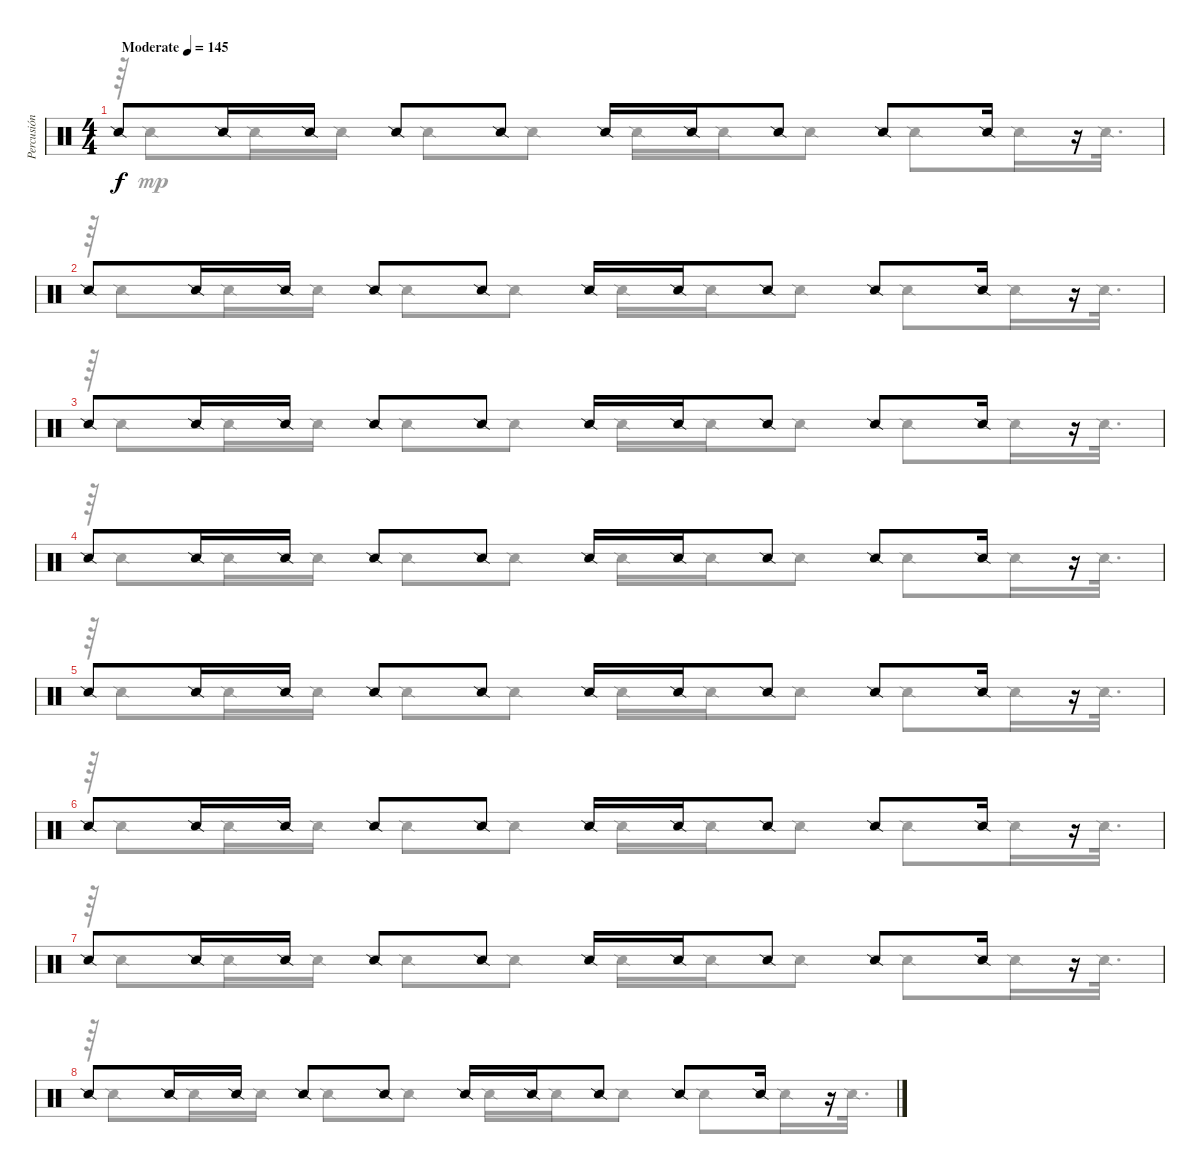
\track ("Percusión" "Percusión") {instrument percussion}
\staff {score}
\articulation defaults
\voice
\ts (4 4)
\tempo (145 "Moderate")
\clef neutral
\ks c "Snare (side stick) 2".8{dy f} "Snare (side stick) 2".16 "Snare (side stick) 2".16 "Snare (side stick) 2".8 "Snare (side stick) 2".8 "Snare (side stick) 2".16 "Snare (side stick) 2".16 "Snare (side stick) 2".8 "Snare (side stick) 2".8 "Snare (side stick) 2".16
r.16 |
"Snare (side stick) 2".8 "Snare (side stick) 2".16 "Snare (side stick) 2".16 "Snare (side stick) 2".8 "Snare (side stick) 2".8 "Snare (side stick) 2".16 "Snare (side stick) 2".16 "Snare (side stick) 2".8 "Snare (side stick) 2".8 "Snare (side stick) 2".16 r.16 |
"Snare (side stick) 2".8 "Snare (side stick) 2".16 "Snare (side stick) 2".16 "Snare (side stick) 2".8 "Snare (side stick) 2".8 "Snare (side stick) 2".16 "Snare (side stick) 2".16 "Snare (side stick) 2".8 "Snare (side stick) 2".8 "Snare (side stick) 2".16 r.16 |
"Snare (side stick) 2".8 "Snare (side stick) 2".16 "Snare (side stick) 2".16 "Snare (side stick) 2".8 "Snare (side stick) 2".8 "Snare (side stick) 2".16 "Snare (side stick) 2".16 "Snare (side stick) 2".8 "Snare (side stick) 2".8 "Snare (side stick) 2".16 r.16 |
"Snare (side stick) 2".8 "Snare (side stick) 2".16 "Snare (side stick) 2".16 "Snare (side stick) 2".8 "Snare (side stick) 2".8 "Snare (side stick) 2".16 "Snare (side stick) 2".16 "Snare (side stick) 2".8 "Snare (side stick) 2".8 "Snare (side stick) 2".16 r.16 |
"Snare (side stick) 2".8 "Snare (side stick) 2".16 "Snare (side stick) 2".16 "Snare (side stick) 2".8 "Snare (side stick) 2".8 "Snare (side stick) 2".16 "Snare (side stick) 2".16 "Snare (side stick) 2".8 "Snare (side stick) 2".8 "Snare (side stick) 2".16 r.16 |
"Snare (side stick) 2".8 "Snare (side stick) 2".16 "Snare (side stick) 2".16 "Snare (side stick) 2".8 "Snare (side stick) 2".8 "Snare (side stick) 2".16 "Snare (side stick) 2".16 "Snare (side stick) 2".8 "Snare (side stick) 2".8 "Snare (side stick) 2".16 r.16 |
"Snare (side stick) 2".8 "Snare (side stick) 2".16 "Snare (side stick) 2".16 "Snare (side stick) 2".8 "Snare (side stick) 2".8 "Snare (side stick) 2".16 "Snare (side stick) 2".16 "Snare (side stick) 2".8 "Snare (side stick) 2".8 "Snare (side stick) 2".16 r.16
\voice
\clef neutral
\ottava regular
\simile none
\ks c
r.64{dy mp} "Snare (side stick) 2".8 "Snare (side stick) 2".16 "Snare (side stick) 2".16 "Snare (side stick) 2".8 "Snare (side stick) 2".8 "Snare (side stick) 2".16 "Snare (side stick) 2".16 "Snare (side stick) 2".8 "Snare (side stick) 2".8 "Snare (side stick) 2".16 "Snare (side stick) 2".32{d} |
r.64 "Snare (side stick) 2".8 "Snare (side stick) 2".16 "Snare (side stick) 2".16 "Snare (side stick) 2".8 "Snare (side stick) 2".8 "Snare (side stick) 2".16 "Snare (side stick) 2".16 "Snare (side stick) 2".8 "Snare (side stick) 2".8 "Snare (side stick) 2".16 "Snare (side stick) 2".32{d} |
r.64 "Snare (side stick) 2".8 "Snare (side stick) 2".16 "Snare (side stick) 2".16 "Snare (side stick) 2".8 "Snare (side stick) 2".8 "Snare (side stick) 2".16 "Snare (side stick) 2".16 "Snare (side stick) 2".8 "Snare (side stick) 2".8 "Snare (side stick) 2".16 "Snare (side stick) 2".32{d} |
r.64 "Snare (side stick) 2".8 "Snare (side stick) 2".16 "Snare (side stick) 2".16 "Snare (side stick) 2".8 "Snare (side stick) 2".8 "Snare (side stick) 2".16 "Snare (side stick) 2".16 "Snare (side stick) 2".8 "Snare (side stick) 2".8 "Snare (side stick) 2".16 "Snare (side stick) 2".32{d} |
r.64 "Snare (side stick) 2".8 "Snare (side stick) 2".16 "Snare (side stick) 2".16 "Snare (side stick) 2".8 "Snare (side stick) 2".8 "Snare (side stick) 2".16 "Snare (side stick) 2".16 "Snare (side stick) 2".8 "Snare (side stick) 2".8 "Snare (side stick) 2".16 "Snare (side stick) 2".32{d} |
r.64 "Snare (side stick) 2".8 "Snare (side stick) 2".16 "Snare (side stick) 2".16 "Snare (side stick) 2".8 "Snare (side stick) 2".8 "Snare (side stick) 2".16 "Snare (side stick) 2".16 "Snare (side stick) 2".8 "Snare (side stick) 2".8 "Snare (side stick) 2".16 "Snare (side stick) 2".32{d} |
r.64 "Snare (side stick) 2".8 "Snare (side stick) 2".16 "Snare (side stick) 2".16 "Snare (side stick) 2".8 "Snare (side stick) 2".8 "Snare (side stick) 2".16 "Snare (side stick) 2".16 "Snare (side stick) 2".8 "Snare (side stick) 2".8 "Snare (side stick) 2".16 "Snare (side stick) 2".32{d} |
r.64 "Snare (side stick) 2".8 "Snare (side stick) 2".16 "Snare (side stick) 2".16 "Snare (side stick) 2".8 "Snare (side stick) 2".8 "Snare (side stick) 2".16 "Snare (side stick) 2".16 "Snare (side stick) 2".8 "Snare (side stick) 2".8 "Snare (side stick) 2".16 "Snare (side stick) 2".32{d}
